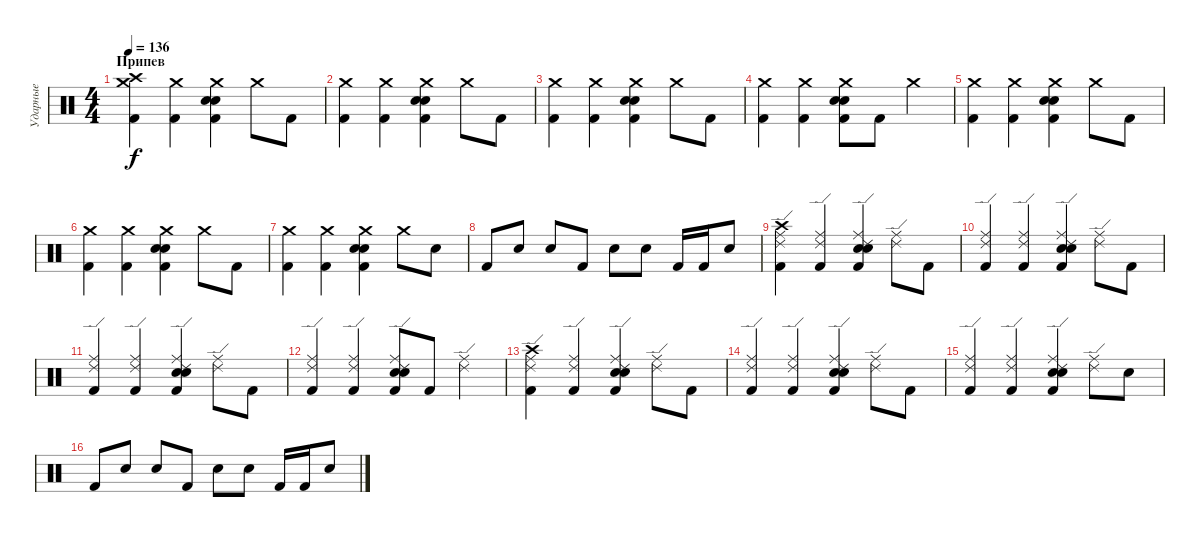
\track ("Ударные" "Ударные") {instrument percussion}
\staff {score}
\articulation defaults
\ts (4 4)
\section ("" "Припев")
\tempo 136
\clef neutral
\ks c
("Crash medium (hit)" "Crash high (hit)" "Kick (hit) 2").4{dy f} ("Crash medium (hit)" "Kick (hit) 2").4 ("Snare (hit) 2" "Crash medium (hit)" "Snare (hit) 2" "Kick (hit) 2").4 "Crash medium (hit)".8 "Kick (hit) 2".8 |
("Crash medium (hit)" "Kick (hit) 2").4 ("Crash medium (hit)" "Kick (hit) 2").4 ("Snare (hit) 2" "Crash medium (hit)" "Snare (hit) 2" "Kick (hit) 2").4 "Crash medium (hit)".8 "Kick (hit) 2".8 |
("Crash medium (hit)" "Kick (hit) 2").4 ("Crash medium (hit)" "Kick (hit) 2").4 ("Snare (hit) 2" "Crash medium (hit)" "Snare (hit) 2" "Kick (hit) 2").4 "Crash medium (hit)".8 "Kick (hit) 2".8 |
("Crash medium (hit)" "Kick (hit) 2").4 ("Crash medium (hit)" "Kick (hit) 2").4 ("Snare (hit) 2" "Crash medium (hit)" "Snare (hit) 2" "Kick (hit) 2").8 "Kick (hit) 2".8 "Crash medium (hit)".4 |
("Crash medium (hit)" "Kick (hit) 2").4 ("Crash medium (hit)" "Kick (hit) 2").4 ("Snare (hit) 2" "Crash medium (hit)" "Snare (hit) 2" "Kick (hit) 2").4 "Crash medium (hit)".8 "Kick (hit) 2".8 |
("Crash medium (hit)" "Kick (hit) 2").4 ("Crash medium (hit)" "Kick (hit) 2").4 ("Snare (hit) 2" "Crash medium (hit)" "Snare (hit) 2" "Kick (hit) 2").4 "Crash medium (hit)".8 "Kick (hit) 2".8 |
("Crash medium (hit)" "Kick (hit) 2").4 ("Crash medium (hit)" "Kick (hit) 2").4 ("Snare (hit) 2" "Crash medium (hit)" "Snare (hit) 2" "Kick (hit) 2").4 "Crash medium (hit)".8 "Snare (hit) 2".8 |
"Kick (hit) 2".8 "Snare (hit) 2".8 "Snare (hit) 2".8 "Kick (hit) 2".8 "Snare (hit) 2".8 "Snare (hit) 2".8 "Kick (hit) 2".16 "Kick (hit) 2".16 "Snare (hit) 2".8 |
("Ride (middle)" "Ride (edge) 2" "Crash high (hit)" "Kick (hit) 2").4 ("Ride (middle)" "Ride (edge) 2" "Kick (hit) 2").4 ("Ride (middle)" "Snare (hit) 2" "Ride (edge) 2" "Snare (hit) 2" "Kick (hit) 2").4 ("Ride (middle)" "Ride (edge) 2").8 "Kick (hit) 2".8 |
("Ride (middle)" "Ride (edge) 2" "Kick (hit) 2").4 ("Ride (middle)" "Ride (edge) 2" "Kick (hit) 2").4 ("Ride (middle)" "Snare (hit) 2" "Ride (edge) 2" "Snare (hit) 2" "Kick (hit) 2").4 ("Ride (middle)" "Ride (edge) 2").8 "Kick (hit) 2".8 |
("Ride (middle)" "Ride (edge) 2" "Kick (hit) 2").4 ("Ride (middle)" "Ride (edge) 2" "Kick (hit) 2").4 ("Ride (middle)" "Snare (hit) 2" "Ride (edge) 2" "Snare (hit) 2" "Kick (hit) 2").4 ("Ride (middle)" "Ride (edge) 2").8 "Kick (hit) 2".8 |
("Ride (middle)" "Ride (edge) 2" "Kick (hit) 2").4 ("Ride (middle)" "Ride (edge) 2" "Kick (hit) 2").4 ("Ride (middle)" "Snare (hit) 2" "Ride (edge) 2" "Snare (hit) 2" "Kick (hit) 2").8 "Kick (hit) 2".8 ("Ride (edge) 2" "Ride (middle)").4 |
("Ride (edge) 2" "Crash high (hit)" "Ride (middle)" "Kick (hit) 2").4 ("Ride (edge) 2" "Ride (middle)" "Kick (hit) 2").4 ("Ride (edge) 2" "Snare (hit) 2" "Ride (middle)" "Snare (hit) 2" "Kick (hit) 2").4 ("Ride (edge) 2" "Ride (middle)").8 "Kick (hit) 2".8 |
("Ride (edge) 2" "Ride (middle)" "Kick (hit) 2").4 ("Ride (edge) 2" "Ride (middle)" "Kick (hit) 2").4 ("Ride (edge) 2" "Snare (hit) 2" "Ride (middle)" "Snare (hit) 2" "Kick (hit) 2").4 ("Ride (edge) 2" "Ride (middle)").8 "Kick (hit) 2".8 |
("Ride (edge) 2" "Ride (middle)" "Kick (hit) 2").4 ("Ride (edge) 2" "Ride (middle)" "Kick (hit) 2").4 ("Ride (edge) 2" "Snare (hit) 2" "Ride (middle)" "Snare (hit) 2" "Kick (hit) 2").4 ("Ride (middle)" "Ride (edge) 2").8 "Snare (hit) 2".8 |
"Kick (hit) 2".8 "Snare (hit) 2".8 "Snare (hit) 2".8 "Kick (hit) 2".8 "Snare (hit) 2".8 "Snare (hit) 2".8 "Kick (hit) 2".16 "Kick (hit) 2".16 "Snare (hit) 2".8
